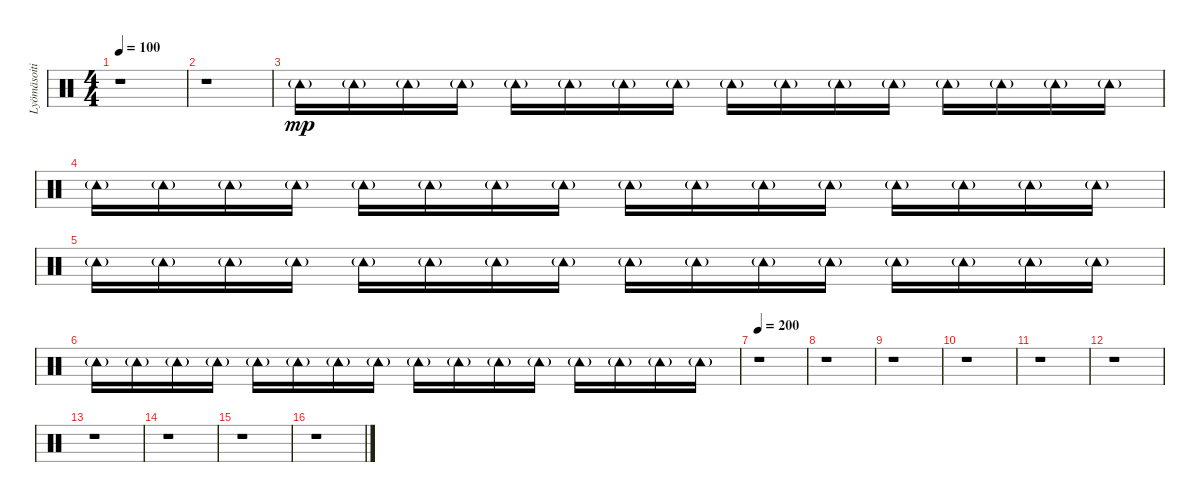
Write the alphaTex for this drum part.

\track ("Lyömäsoitin" "Lyömäsoiti") {instrument percussion}
\staff {score}
\articulation defaults
\ts (4 4)
\tempo 100
\clef neutral
\ks c
r.1{dy mp} |
r.1 |
"Tambourine (hit)"{g}.16 "Tambourine (hit)"{g}.16 "Tambourine (hit)"{g}.16 "Tambourine (hit)"{g}.16 "Tambourine (hit)"{g}.16 "Tambourine (hit)"{g}.16 "Tambourine (hit)"{g}.16 "Tambourine (hit)"{g}.16 "Tambourine (hit)"{g}.16 "Tambourine (hit)"{g}.16 "Tambourine (hit)"{g}.16 "Tambourine (hit)"{g}.16 "Tambourine (hit)"{g}.16 "Tambourine (hit)"{g}.16 "Tambourine (hit)"{g}.16 "Tambourine (hit)"{g}.16 |
"Tambourine (hit)"{g}.16 "Tambourine (hit)"{g}.16 "Tambourine (hit)"{g}.16 "Tambourine (hit)"{g}.16 "Tambourine (hit)"{g}.16 "Tambourine (hit)"{g}.16 "Tambourine (hit)"{g}.16 "Tambourine (hit)"{g}.16 "Tambourine (hit)"{g}.16 "Tambourine (hit)"{g}.16 "Tambourine (hit)"{g}.16 "Tambourine (hit)"{g}.16 "Tambourine (hit)"{g}.16 "Tambourine (hit)"{g}.16 "Tambourine (hit)"{g}.16 "Tambourine (hit)"{g}.16 |
"Tambourine (hit)"{g}.16 "Tambourine (hit)"{g}.16 "Tambourine (hit)"{g}.16 "Tambourine (hit)"{g}.16 "Tambourine (hit)"{g}.16 "Tambourine (hit)"{g}.16 "Tambourine (hit)"{g}.16 "Tambourine (hit)"{g}.16 "Tambourine (hit)"{g}.16 "Tambourine (hit)"{g}.16 "Tambourine (hit)"{g}.16 "Tambourine (hit)"{g}.16 "Tambourine (hit)"{g}.16 "Tambourine (hit)"{g}.16 "Tambourine (hit)"{g}.16 "Tambourine (hit)"{g}.16 |
"Tambourine (hit)"{g}.16 "Tambourine (hit)"{g}.16 "Tambourine (hit)"{g}.16 "Tambourine (hit)"{g}.16 "Tambourine (hit)"{g}.16 "Tambourine (hit)"{g}.16 "Tambourine (hit)"{g}.16 "Tambourine (hit)"{g}.16 "Tambourine (hit)"{g}.16 "Tambourine (hit)"{g}.16 "Tambourine (hit)"{g}.16 "Tambourine (hit)"{g}.16 "Tambourine (hit)"{g}.16 "Tambourine (hit)"{g}.16 "Tambourine (hit)"{g}.16 "Tambourine (hit)"{g}.16 |
\tempo 200
r.1 |
r.1 |
r.1 |
r.1 |
r.1 |
r.1 |
r.1 |
r.1 |
r.1 |
r.1
